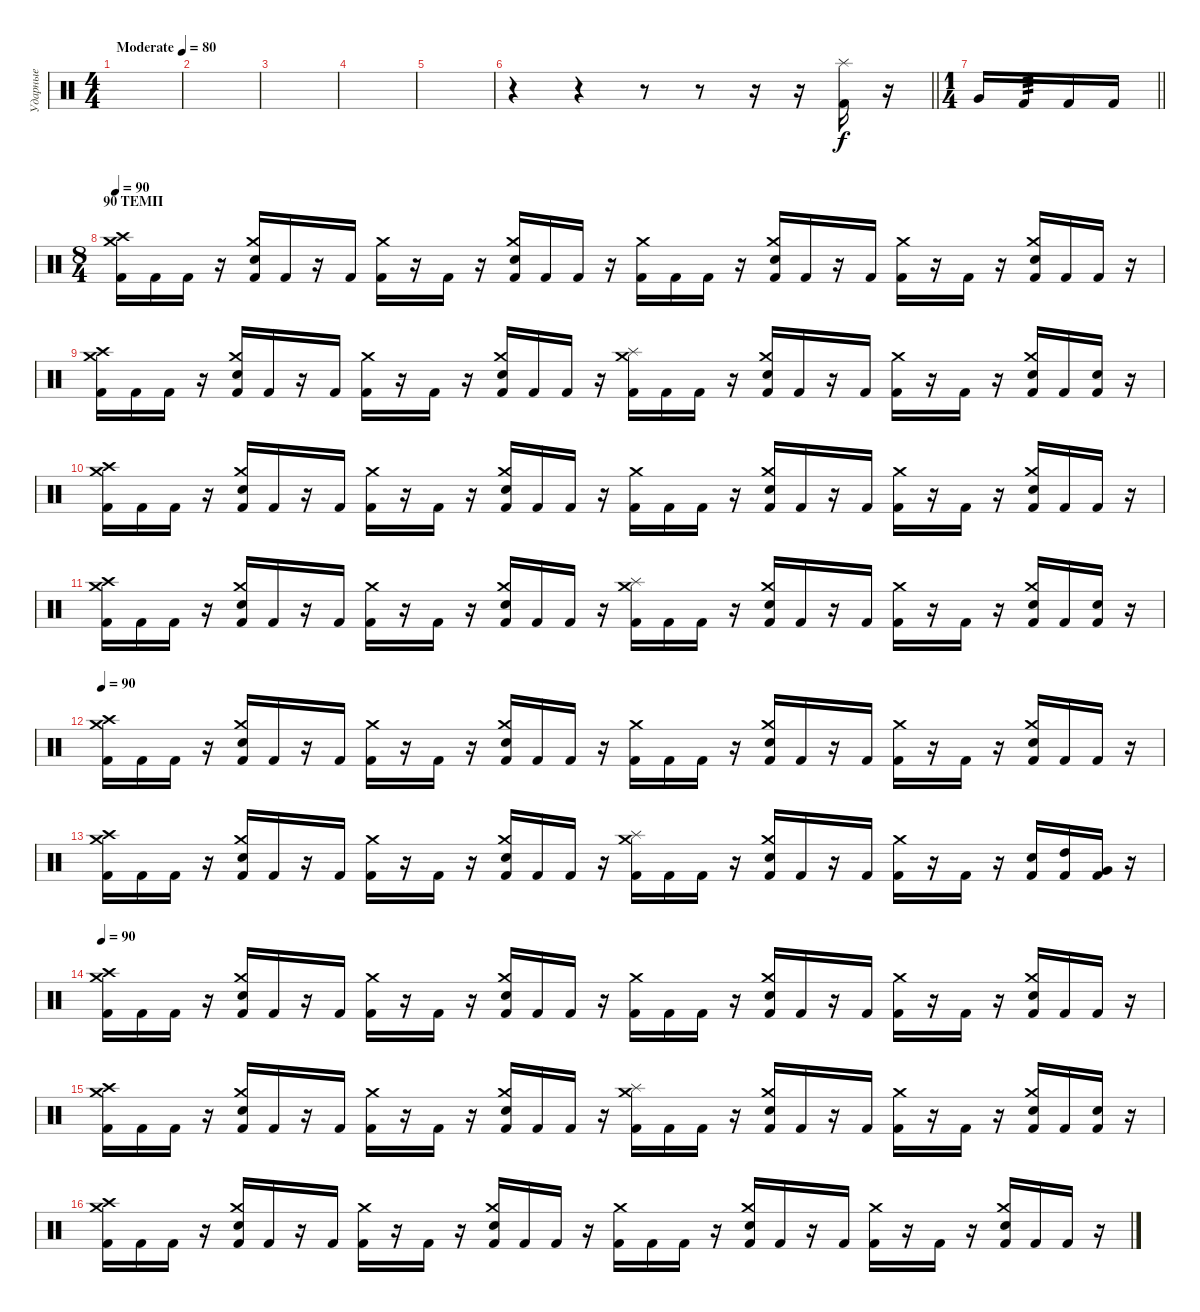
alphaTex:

\track ("Ударные" "Ударные") {instrument percussion}
\staff {score}
\articulation defaults
\ts (4 4)
\tempo (80 "Moderate")
\clef neutral
\ks c
|
|
|
|
|
\barLineRight lightlight
r.4 r.4 r.8 r.8 r.16 r.16 ("Splash (hit)" "Kick (hit) 2").16 r.16 |
\ts (1 4)
\barLineRight lightlight "Very Low Tom (hit)".16 "Kick (hit) 2".16{tp 3} "Kick (hit) 2".16 "Kick (hit) 2".16
|
\ts (8 4)
\section ("" "90 ТЕМП")
\tempo 90
("Crash medium (hit)" "Crash high (hit)" "Kick (hit) 2").16 "Kick (hit) 2".16 "Kick (hit) 2".16 r.16 ("Crash medium (hit)" "Electric Snare (hit)" "Kick (hit) 2").16 "Kick (hit) 2".16 r.16 "Kick (hit) 2".16 ("Crash medium (hit)" "Kick (hit) 2").16 r.16 "Kick (hit) 2".16 r.16 ("Crash medium (hit)" "Electric Snare (hit)" "Kick (hit) 2").16 "Kick (hit) 2".16 "Kick (hit) 2".16 r.16 ("Crash medium (hit)" "Kick (hit) 2").16 "Kick (hit) 2".16 "Kick (hit) 2".16 r.16 ("Crash medium (hit)" "Electric Snare (hit)" "Kick (hit) 2").16 "Kick (hit) 2".16 r.16 "Kick (hit) 2".16 ("Crash medium (hit)" "Kick (hit) 2").16 r.16 "Kick (hit) 2".16 r.16 ("Crash medium (hit)" "Electric Snare (hit)" "Kick (hit) 2").16 "Kick (hit) 2".16 "Kick (hit) 2".16 r.16 |
("Crash medium (hit)" "Crash high (hit)" "Kick (hit) 2").16 "Kick (hit) 2".16 "Kick (hit) 2".16 r.16 ("Crash medium (hit)" "Electric Snare (hit)" "Kick (hit) 2").16 "Kick (hit) 2".16 r.16 "Kick (hit) 2".16 ("Crash medium (hit)" "Kick (hit) 2").16 r.16 "Kick (hit) 2".16 r.16 ("Crash medium (hit)" "Electric Snare (hit)" "Kick (hit) 2").16 "Kick (hit) 2".16 "Kick (hit) 2".16 r.16 ("Crash medium (hit)" "Splash (hit)" "Kick (hit) 2").16 "Kick (hit) 2".16 "Kick (hit) 2".16 r.16 ("Crash medium (hit)" "Electric Snare (hit)" "Kick (hit) 2").16 "Kick (hit) 2".16 r.16 "Kick (hit) 2".16 ("Crash medium (hit)" "Kick (hit) 2").16 r.16 "Kick (hit) 2".16 r.16 ("Crash medium (hit)" "Electric Snare (hit)" "Kick (hit) 2").16 "Kick (hit) 2".16 ("Electric Snare (hit)" "Kick (hit) 2").16 r.16 |
("Crash medium (hit)" "Crash high (hit)" "Kick (hit) 2").16 "Kick (hit) 2".16 "Kick (hit) 2".16 r.16 ("Crash medium (hit)" "Electric Snare (hit)" "Kick (hit) 2").16 "Kick (hit) 2".16 r.16 "Kick (hit) 2".16 ("Crash medium (hit)" "Kick (hit) 2").16 r.16 "Kick (hit) 2".16 r.16 ("Crash medium (hit)" "Electric Snare (hit)" "Kick (hit) 2").16 "Kick (hit) 2".16 "Kick (hit) 2".16 r.16 ("Crash medium (hit)" "Kick (hit) 2").16 "Kick (hit) 2".16 "Kick (hit) 2".16 r.16 ("Crash medium (hit)" "Electric Snare (hit)" "Kick (hit) 2").16 "Kick (hit) 2".16 r.16 "Kick (hit) 2".16 ("Crash medium (hit)" "Kick (hit) 2").16 r.16 "Kick (hit) 2".16 r.16 ("Crash medium (hit)" "Electric Snare (hit)" "Kick (hit) 2").16 "Kick (hit) 2".16 "Kick (hit) 2".16 r.16 |
("Crash medium (hit)" "Crash high (hit)" "Kick (hit) 2").16 "Kick (hit) 2".16 "Kick (hit) 2".16 r.16 ("Crash medium (hit)" "Electric Snare (hit)" "Kick (hit) 2").16 "Kick (hit) 2".16 r.16 "Kick (hit) 2".16 ("Crash medium (hit)" "Kick (hit) 2").16 r.16 "Kick (hit) 2".16 r.16 ("Crash medium (hit)" "Electric Snare (hit)" "Kick (hit) 2").16 "Kick (hit) 2".16 "Kick (hit) 2".16 r.16 ("Crash medium (hit)" "Splash (hit)" "Kick (hit) 2").16 "Kick (hit) 2".16 "Kick (hit) 2".16 r.16 ("Crash medium (hit)" "Electric Snare (hit)" "Kick (hit) 2").16 "Kick (hit) 2".16 r.16 "Kick (hit) 2".16 ("Crash medium (hit)" "Kick (hit) 2").16 r.16 "Kick (hit) 2".16 r.16 ("Crash medium (hit)" "Electric Snare (hit)" "Kick (hit) 2").16 "Kick (hit) 2".16 ("Electric Snare (hit)" "Kick (hit) 2").16 r.16 |
\tempo 90
("Crash medium (hit)" "Crash high (hit)" "Kick (hit) 2").16 "Kick (hit) 2".16 "Kick (hit) 2".16 r.16 ("Crash medium (hit)" "Electric Snare (hit)" "Kick (hit) 2").16 "Kick (hit) 2".16 r.16 "Kick (hit) 2".16 ("Crash medium (hit)" "Kick (hit) 2").16 r.16 "Kick (hit) 2".16 r.16 ("Crash medium (hit)" "Electric Snare (hit)" "Kick (hit) 2").16 "Kick (hit) 2".16 "Kick (hit) 2".16 r.16 ("Crash medium (hit)" "Kick (hit) 2").16 "Kick (hit) 2".16 "Kick (hit) 2".16 r.16 ("Crash medium (hit)" "Electric Snare (hit)" "Kick (hit) 2").16 "Kick (hit) 2".16 r.16 "Kick (hit) 2".16 ("Crash medium (hit)" "Kick (hit) 2").16 r.16 "Kick (hit) 2".16 r.16 ("Crash medium (hit)" "Electric Snare (hit)" "Kick (hit) 2").16 "Kick (hit) 2".16 "Kick (hit) 2".16 r.16 |
("Crash medium (hit)" "Crash high (hit)" "Kick (hit) 2").16 "Kick (hit) 2".16 "Kick (hit) 2".16 r.16 ("Crash medium (hit)" "Electric Snare (hit)" "Kick (hit) 2").16 "Kick (hit) 2".16 r.16 "Kick (hit) 2".16 ("Crash medium (hit)" "Kick (hit) 2").16 r.16 "Kick (hit) 2".16 r.16 ("Crash medium (hit)" "Electric Snare (hit)" "Kick (hit) 2").16 "Kick (hit) 2".16 "Kick (hit) 2".16 r.16 ("Crash medium (hit)" "Splash (hit)" "Kick (hit) 2").16 "Kick (hit) 2".16 "Kick (hit) 2".16 r.16 ("Crash medium (hit)" "Electric Snare (hit)" "Kick (hit) 2").16 "Kick (hit) 2".16 r.16 "Kick (hit) 2".16 ("Crash medium (hit)" "Kick (hit) 2").16 r.16 "Kick (hit) 2".16 r.16 ("Electric Snare (hit)" "Kick (hit) 2").16 ("High Tom (hit)" "Kick (hit) 2").16 ("Very Low Tom (hit)" "Kick (hit) 2").16 r.16 |
\tempo 90
("Crash medium (hit)" "Crash high (hit)" "Kick (hit) 2").16 "Kick (hit) 2".16 "Kick (hit) 2".16 r.16 ("Crash medium (hit)" "Electric Snare (hit)" "Kick (hit) 2").16 "Kick (hit) 2".16 r.16 "Kick (hit) 2".16 ("Crash medium (hit)" "Kick (hit) 2").16 r.16 "Kick (hit) 2".16 r.16 ("Crash medium (hit)" "Electric Snare (hit)" "Kick (hit) 2").16 "Kick (hit) 2".16 "Kick (hit) 2".16 r.16 ("Crash medium (hit)" "Kick (hit) 2").16 "Kick (hit) 2".16 "Kick (hit) 2".16 r.16 ("Crash medium (hit)" "Electric Snare (hit)" "Kick (hit) 2").16 "Kick (hit) 2".16 r.16 "Kick (hit) 2".16 ("Crash medium (hit)" "Kick (hit) 2").16 r.16 "Kick (hit) 2".16 r.16 ("Crash medium (hit)" "Electric Snare (hit)" "Kick (hit) 2").16 "Kick (hit) 2".16 "Kick (hit) 2".16 r.16 |
("Crash medium (hit)" "Crash high (hit)" "Kick (hit) 2").16 "Kick (hit) 2".16 "Kick (hit) 2".16 r.16 ("Crash medium (hit)" "Electric Snare (hit)" "Kick (hit) 2").16 "Kick (hit) 2".16 r.16 "Kick (hit) 2".16 ("Crash medium (hit)" "Kick (hit) 2").16 r.16 "Kick (hit) 2".16 r.16 ("Crash medium (hit)" "Electric Snare (hit)" "Kick (hit) 2").16 "Kick (hit) 2".16 "Kick (hit) 2".16 r.16 ("Crash medium (hit)" "Splash (hit)" "Kick (hit) 2").16 "Kick (hit) 2".16 "Kick (hit) 2".16 r.16 ("Crash medium (hit)" "Electric Snare (hit)" "Kick (hit) 2").16 "Kick (hit) 2".16 r.16 "Kick (hit) 2".16 ("Crash medium (hit)" "Kick (hit) 2").16 r.16 "Kick (hit) 2".16 r.16 ("Crash medium (hit)" "Electric Snare (hit)" "Kick (hit) 2").16 "Kick (hit) 2".16 ("Electric Snare (hit)" "Kick (hit) 2").16 r.16 |
("Crash medium (hit)" "Crash high (hit)" "Kick (hit) 2").16 "Kick (hit) 2".16 "Kick (hit) 2".16 r.16 ("Crash medium (hit)" "Electric Snare (hit)" "Kick (hit) 2").16 "Kick (hit) 2".16 r.16 "Kick (hit) 2".16 ("Crash medium (hit)" "Kick (hit) 2").16 r.16 "Kick (hit) 2".16 r.16 ("Crash medium (hit)" "Electric Snare (hit)" "Kick (hit) 2").16 "Kick (hit) 2".16 "Kick (hit) 2".16 r.16 ("Crash medium (hit)" "Kick (hit) 2").16 "Kick (hit) 2".16 "Kick (hit) 2".16 r.16 ("Crash medium (hit)" "Electric Snare (hit)" "Kick (hit) 2").16 "Kick (hit) 2".16 r.16 "Kick (hit) 2".16 ("Crash medium (hit)" "Kick (hit) 2").16 r.16 "Kick (hit) 2".16 r.16 ("Crash medium (hit)" "Electric Snare (hit)" "Kick (hit) 2").16 "Kick (hit) 2".16 "Kick (hit) 2".16 r.16
